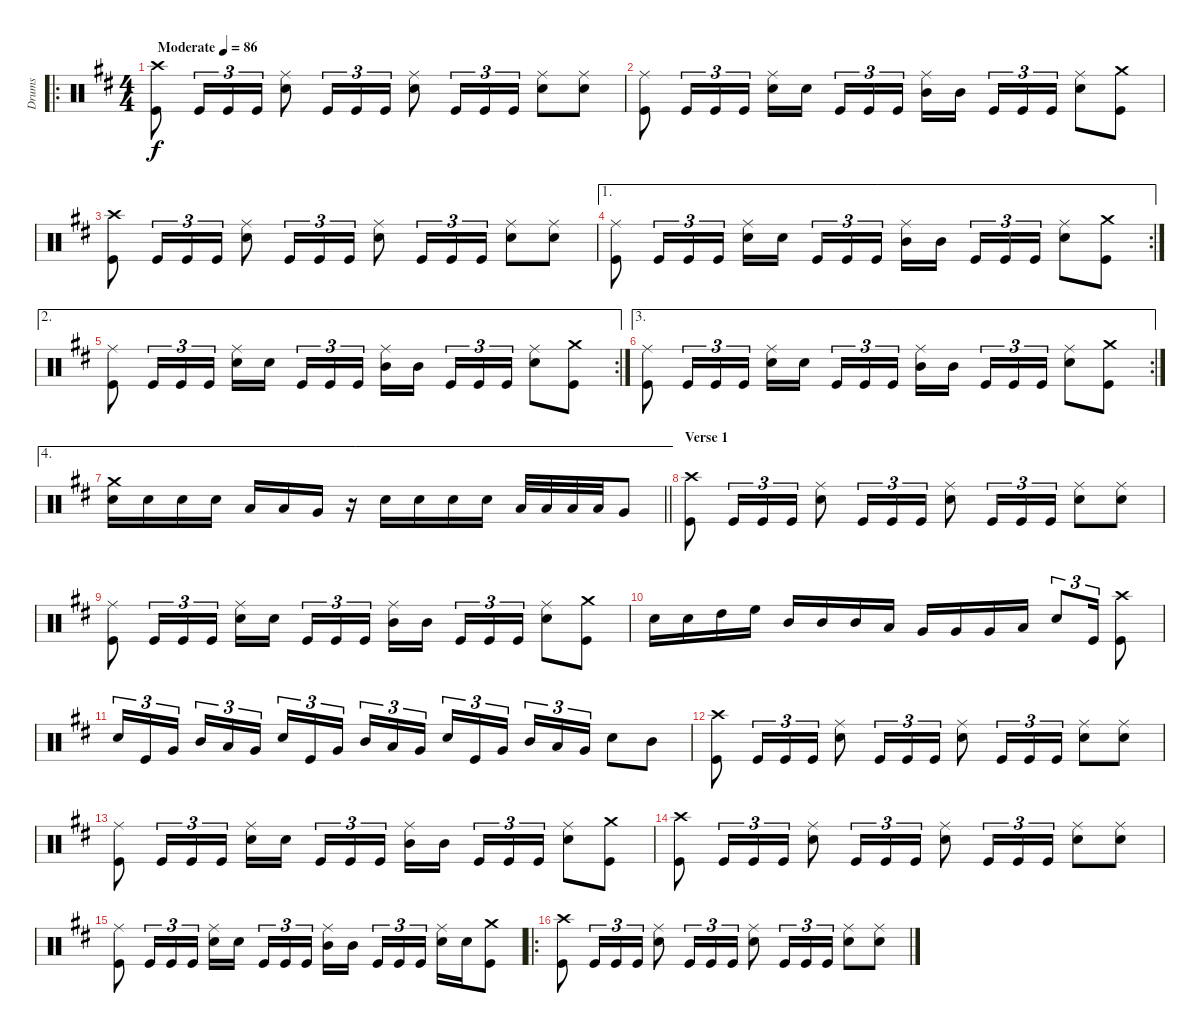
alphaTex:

\track ("Drums" "Drums") {instrument percussion}
\staff {score}
\articulation defaults
\ro
\ts (4 4)
\tempo (86 "Moderate")
\clef neutral
\ks bminor
("Crash high (hit)" "Kick (hit)").8{dy f} "Kick (hit)".16{tu (3 2)} "Kick (hit)".16{tu (3 2)} "Kick (hit)".16{tu (3 2)} ("Ride (middle)" "Snare (hit) 2").8 "Kick (hit)".16{tu (3 2)} "Kick (hit)".16{tu (3 2)} "Kick (hit)".16{tu (3 2)} ("Ride (middle)" "Snare (hit) 2").8 "Kick (hit)".16{tu (3 2)} "Kick (hit)".16{tu (3 2)} "Kick (hit)".16{tu (3 2)} ("Ride (middle)" "Snare (hit) 2").8 ("Ride (middle)" "Snare (hit) 2").8 |
("Ride (middle)" "Kick (hit)").8 "Kick (hit)".16{tu (3 2)} "Kick (hit)".16{tu (3 2)} "Kick (hit)".16{tu (3 2)} ("Ride (middle)" "Snare (hit) 2").16 "Snare (hit) 2".16{beam splitsecondary} "Kick (hit)".16{tu (3 2)} "Kick (hit)".16{tu (3 2)} "Kick (hit)".16{tu (3 2)} ("Ride (middle)" "Mid Tom (hit)").16 "Mid Tom (hit)".16{beam splitsecondary} "Kick (hit)".16{tu (3 2)} "Kick (hit)".16{tu (3 2)} "Kick (hit)".16{tu (3 2)} ("Ride (middle)" "Snare (hit) 2").8 ("Crash medium (hit)" "Kick (hit)").8 |
("Crash high (hit)" "Kick (hit)").8 "Kick (hit)".16{tu (3 2)} "Kick (hit)".16{tu (3 2)} "Kick (hit)".16{tu (3 2)} ("Ride (middle)" "Snare (hit) 2").8 "Kick (hit)".16{tu (3 2)} "Kick (hit)".16{tu (3 2)} "Kick (hit)".16{tu (3 2)} ("Ride (middle)" "Snare (hit) 2").8 "Kick (hit)".16{tu (3 2)} "Kick (hit)".16{tu (3 2)} "Kick (hit)".16{tu (3 2)} ("Ride (middle)" "Snare (hit) 2").8 ("Ride (middle)" "Snare (hit) 2").8 |
\ae 1
\rc 2
("Ride (middle)" "Kick (hit)").8 "Kick (hit)".16{tu (3 2)} "Kick (hit)".16{tu (3 2)} "Kick (hit)".16{tu (3 2)} ("Ride (middle)" "Snare (hit) 2").16 "Snare (hit) 2".16{beam splitsecondary} "Kick (hit)".16{tu (3 2)} "Kick (hit)".16{tu (3 2)} "Kick (hit)".16{tu (3 2)} ("Ride (middle)" "Mid Tom (hit)").16 "Mid Tom (hit)".16{beam splitsecondary} "Kick (hit)".16{tu (3 2)} "Kick (hit)".16{tu (3 2)} "Kick (hit)".16{tu (3 2)} ("Ride (middle)" "Snare (hit) 2").8 ("Crash medium (hit)" "Kick (hit)").8 |
\ae 2
\rc 2
("Ride (middle)" "Kick (hit)").8 "Kick (hit)".16{tu (3 2)} "Kick (hit)".16{tu (3 2)} "Kick (hit)".16{tu (3 2)} ("Ride (middle)" "Snare (hit) 2").16 "Snare (hit) 2".16{beam splitsecondary} "Kick (hit)".16{tu (3 2)} "Kick (hit)".16{tu (3 2)} "Kick (hit)".16{tu (3 2)} ("Ride (middle)" "Mid Tom (hit)").16 "Mid Tom (hit)".16{beam splitsecondary} "Kick (hit)".16{tu (3 2)} "Kick (hit)".16{tu (3 2)} "Kick (hit)".16{tu (3 2)} ("Ride (middle)" "Snare (hit) 2").8 ("Crash medium (hit)" "Kick (hit)").8 |
\ae 3
\rc 2
("Ride (middle)" "Kick (hit)").8 "Kick (hit)".16{tu (3 2)} "Kick (hit)".16{tu (3 2)} "Kick (hit)".16{tu (3 2)} ("Ride (middle)" "Snare (hit) 2").16 "Snare (hit) 2".16{beam splitsecondary} "Kick (hit)".16{tu (3 2)} "Kick (hit)".16{tu (3 2)} "Kick (hit)".16{tu (3 2)} ("Ride (middle)" "Mid Tom (hit)").16 "Mid Tom (hit)".16{beam splitsecondary} "Kick (hit)".16{tu (3 2)} "Kick (hit)".16{tu (3 2)} "Kick (hit)".16{tu (3 2)} ("Ride (middle)" "Snare (hit) 2").8 ("Crash medium (hit)" "Kick (hit)").8 |
\ae 4
\barLineRight lightlight
("Crash medium (hit)" "Snare (hit) 2").16 "Snare (hit) 2".16 "Snare (hit) 2".16 "Snare (hit) 2".16 "Low Tom (hit)".16 "Low Tom (hit)".16 "Very Low Tom (hit)".16 r.16 "Snare (hit) 2".16 "Snare (hit) 2".16 "Snare (hit) 2".16 "Snare (hit) 2".16 "Low Tom (hit)".32 "Low Tom (hit)".32 "Low Tom (hit)".32 "Low Tom (hit)".32 "Very Low Tom (hit)".8 |
\section ("" "Verse 1")
("Crash high (hit)" "Kick (hit)").8 "Kick (hit)".16{tu (3 2)} "Kick (hit)".16{tu (3 2)} "Kick (hit)".16{tu (3 2)} ("Ride (middle)" "Snare (hit) 2").8 "Kick (hit)".16{tu (3 2)} "Kick (hit)".16{tu (3 2)} "Kick (hit)".16{tu (3 2)} ("Ride (middle)" "Snare (hit) 2").8 "Kick (hit)".16{tu (3 2)} "Kick (hit)".16{tu (3 2)} "Kick (hit)".16{tu (3 2)} ("Ride (middle)" "Snare (hit) 2").8 ("Ride (middle)" "Snare (hit) 2").8 |
("Ride (middle)" "Kick (hit)").8 "Kick (hit)".16{tu (3 2)} "Kick (hit)".16{tu (3 2)} "Kick (hit)".16{tu (3 2)} ("Ride (middle)" "Snare (hit) 2").16 "Snare (hit) 2".16{beam splitsecondary} "Kick (hit)".16{tu (3 2)} "Kick (hit)".16{tu (3 2)} "Kick (hit)".16{tu (3 2)} ("Ride (middle)" "Mid Tom (hit)").16 "Mid Tom (hit)".16{beam splitsecondary} "Kick (hit)".16{tu (3 2)} "Kick (hit)".16{tu (3 2)} "Kick (hit)".16{tu (3 2)} ("Ride (middle)" "Snare (hit) 2").8 ("Crash medium (hit)" "Kick (hit)").8 |
"Snare (hit) 2".16 "Snare (hit) 2".16 "High Tom (hit)".16 "High Floor Tom (hit)".16 "Mid Tom (hit)".16 "Mid Tom (hit)".16 "Mid Tom (hit)".16 "Low Tom (hit)".16 "Very Low Tom (hit)".16 "Very Low Tom (hit)".16 "Very Low Tom (hit)".16 "Low Floor Tom (hit)".16 "Snare (hit) 2".8{tu (3 2)} "Kick (hit)".16{tu (3 2)} ("Crash high (hit)" "Kick (hit)").8 |
"Snare (hit) 2".16{tu (3 2)} "Kick (hit)".16{tu (3 2)} "Very Low Tom (hit)".16{tu (3 2) beam splitsecondary} "Mid Tom (hit)".16{tu (3 2)} "Low Tom (hit)".16{tu (3 2)} "Very Low Tom (hit)".16{tu (3 2)} "Snare (hit) 2".16{tu (3 2)} "Kick (hit)".16{tu (3 2)} "Very Low Tom (hit)".16{tu (3 2) beam splitsecondary} "Mid Tom (hit)".16{tu (3 2)} "Low Tom (hit)".16{tu (3 2)} "Very Low Tom (hit)".16{tu (3 2)} "Snare (hit) 2".16{tu (3 2)} "Kick (hit)".16{tu (3 2)} "Very Low Tom (hit)".16{tu (3 2) beam splitsecondary} "Mid Tom (hit)".16{tu (3 2)} "Low Tom (hit)".16{tu (3 2)} "Very Low Tom (hit)".16{tu (3 2)} "Snare (hit) 2".8 "Mid Tom (hit)".8 |
("Crash high (hit)" "Kick (hit)").8 "Kick (hit)".16{tu (3 2)} "Kick (hit)".16{tu (3 2)} "Kick (hit)".16{tu (3 2)} ("Ride (middle)" "Snare (hit) 2").8 "Kick (hit)".16{tu (3 2)} "Kick (hit)".16{tu (3 2)} "Kick (hit)".16{tu (3 2)} ("Ride (middle)" "Snare (hit) 2").8 "Kick (hit)".16{tu (3 2)} "Kick (hit)".16{tu (3 2)} "Kick (hit)".16{tu (3 2)} ("Ride (middle)" "Snare (hit) 2").8 ("Ride (middle)" "Snare (hit) 2").8 |
("Ride (middle)" "Kick (hit)").8 "Kick (hit)".16{tu (3 2)} "Kick (hit)".16{tu (3 2)} "Kick (hit)".16{tu (3 2)} ("Ride (middle)" "Snare (hit) 2").16 "Snare (hit) 2".16{beam splitsecondary} "Kick (hit)".16{tu (3 2)} "Kick (hit)".16{tu (3 2)} "Kick (hit)".16{tu (3 2)} ("Ride (middle)" "Mid Tom (hit)").16 "Mid Tom (hit)".16{beam splitsecondary} "Kick (hit)".16{tu (3 2)} "Kick (hit)".16{tu (3 2)} "Kick (hit)".16{tu (3 2)} ("Ride (middle)" "Snare (hit) 2").8 ("Crash medium (hit)" "Kick (hit)").8 |
("Crash high (hit)" "Kick (hit)").8 "Kick (hit)".16{tu (3 2)} "Kick (hit)".16{tu (3 2)} "Kick (hit)".16{tu (3 2)} ("Ride (middle)" "Snare (hit) 2").8 "Kick (hit)".16{tu (3 2)} "Kick (hit)".16{tu (3 2)} "Kick (hit)".16{tu (3 2)} ("Ride (middle)" "Snare (hit) 2").8 "Kick (hit)".16{tu (3 2)} "Kick (hit)".16{tu (3 2)} "Kick (hit)".16{tu (3 2)} ("Ride (middle)" "Snare (hit) 2").8 ("Ride (middle)" "Snare (hit) 2").8 |
("Ride (middle)" "Kick (hit)").8 "Kick (hit)".16{tu (3 2)} "Kick (hit)".16{tu (3 2)} "Kick (hit)".16{tu (3 2)} ("Ride (middle)" "Snare (hit) 2").16 "Snare (hit) 2".16{beam splitsecondary} "Kick (hit)".16{tu (3 2)} "Kick (hit)".16{tu (3 2)} "Kick (hit)".16{tu (3 2)} ("Ride (middle)" "Mid Tom (hit)").16 "Mid Tom (hit)".16{beam splitsecondary} "Kick (hit)".16{tu (3 2)} "Kick (hit)".16{tu (3 2)} "Kick (hit)".16{tu (3 2)} ("Ride (middle)" "Snare (hit) 2").16 "Snare (hit) 2".16 ("Crash medium (hit)" "Kick (hit)").8 |
\ro
("Crash high (hit)" "Kick (hit)").8 "Kick (hit)".16{tu (3 2)} "Kick (hit)".16{tu (3 2)} "Kick (hit)".16{tu (3 2)} ("Ride (middle)" "Snare (hit) 2").8 "Kick (hit)".16{tu (3 2)} "Kick (hit)".16{tu (3 2)} "Kick (hit)".16{tu (3 2)} ("Ride (middle)" "Snare (hit) 2").8 "Kick (hit)".16{tu (3 2)} "Kick (hit)".16{tu (3 2)} "Kick (hit)".16{tu (3 2)} ("Ride (middle)" "Snare (hit) 2").8 ("Ride (middle)" "Snare (hit) 2").8
